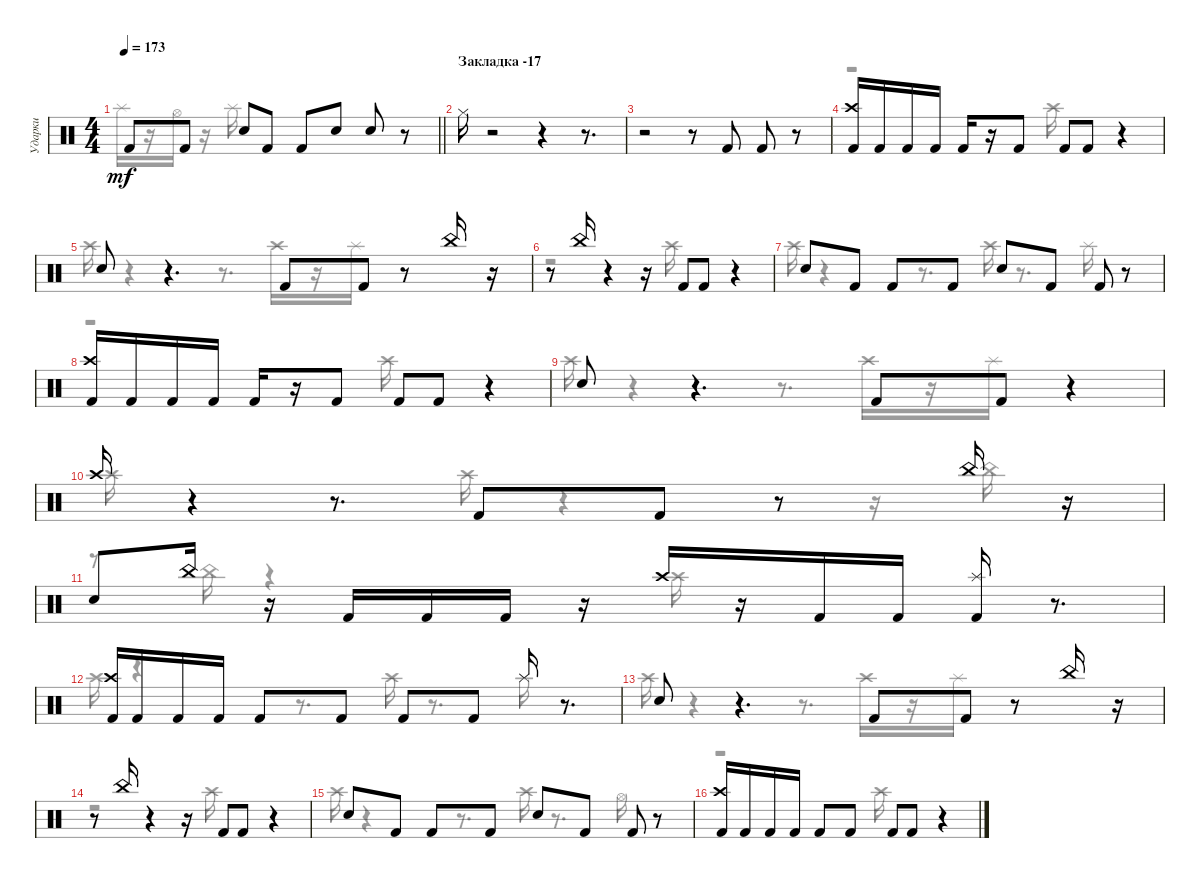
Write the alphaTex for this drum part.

\track ("Ударки" "Ударки") {instrument percussion}
\staff {score}
\articulation defaults
\voice
\ts (4 4)
\tempo 173
\clef neutral
\barLineRight lightlight
\ks aminor "Kick (hit) 2".8{dy mf} "Kick (hit) 2".8 "Snare (hit) 2".8 "Kick (hit) 2".8 "Kick (hit) 2".8 "Snare (hit) 2".8 "Snare (hit) 2".8
r.8 |
\section ("" "Закладка -17")
"Hi-Hat (closed)".16 r.2 r.4 r.8{d} |
r.2 r.8 "Kick (hit) 2".8 "Kick (hit) 2".8 r.8 |
("Crash high (hit)" "Kick (hit) 2").16 "Kick (hit) 2".16 "Kick (hit) 2".16 "Kick (hit) 2".16 "Kick (hit) 2".16 r.16 "Kick (hit) 2".8 "Kick (hit) 2".8 "Kick (hit) 2".8 r.4 |
"Snare (hit) 2".8 r.4{d} "Kick (hit) 2".8 "Kick (hit) 2".8 r.8 "China (hit)".16 r.16 |
r.8 "China (hit)".16 r.4 r.16 "Kick (hit) 2".8 "Kick (hit) 2".8 r.4 |
"Snare (hit) 2".8 "Kick (hit) 2".8 "Kick (hit) 2".8 "Kick (hit) 2".8 "Snare (hit) 2".8 "Kick (hit) 2".8 "Kick (hit) 2".8 r.8 |
("Kick (hit) 2" "Crash high (hit)").16 "Kick (hit) 2".16 "Kick (hit) 2".16 "Kick (hit) 2".16 "Kick (hit) 2".16 r.16 "Kick (hit) 2".8 "Kick (hit) 2".8 "Kick (hit) 2".8 r.4 |
"Snare (hit) 2".8 r.4{d} "Kick (hit) 2".8 "Kick (hit) 2".8 r.4 |
"Crash high (hit)".16 r.4 r.8{d} "Kick (hit) 2".8 "Kick (hit) 2".8 r.8 "China (hit)".16 r.16 |
"Snare (hit) 2".8 "China (hit)".16 r.16 "Kick (hit) 2".16 "Kick (hit) 2".16 "Kick (hit) 2".16 r.16 "Crash high (hit)".16 r.16 "Kick (hit) 2".16 "Kick (hit) 2".16 ("Kick (hit) 2" "Splash (hit)").16 r.8{d} |
("Kick (hit) 2" "Crash high (hit)").16 "Kick (hit) 2".16 "Kick (hit) 2".16 "Kick (hit) 2".16 "Kick (hit) 2".8 "Kick (hit) 2".8 "Kick (hit) 2".8 "Kick (hit) 2".8 "Splash (hit)".16 r.8{d} |
"Snare (hit) 2".8 r.4{d} "Kick (hit) 2".8 "Kick (hit) 2".8 r.8 "China (hit)".16 r.16 |
r.8 "China (hit)".16 r.4 r.16 "Kick (hit) 2".8 "Kick (hit) 2".8 r.4 |
"Snare (hit) 2".8 "Kick (hit) 2".8 "Kick (hit) 2".8 "Kick (hit) 2".8 "Snare (hit) 2".8 "Kick (hit) 2".8 "Kick (hit) 2".8 r.8 |
("Crash high (hit)" "Kick (hit) 2").16 "Kick (hit) 2".16 "Kick (hit) 2".16 "Kick (hit) 2".16 "Kick (hit) 2".8 "Kick (hit) 2".8 "Kick (hit) 2".8 "Kick (hit) 2".8 r.4
\voice
\clef neutral
\ottava regular
\simile none
\barLineRight lightlight
\ks aminor "Splash (hit)".16{dy mf}
r.16 "Hi-Hat (open)".16 r.16 "Splash (hit)".16 |
|
|
r.2 "Crash high (hit)".16 |
"Crash high (hit)".16 r.4 r.8{d} "Crash high (hit)".16 r.16 "Splash (hit)".16 |
r.2 "Crash high (hit)".16 |
"Crash high (hit)".16 r.4 r.8{d} "Crash high (hit)".16 r.8{d} "Splash (hit)".16 |
r.2 "Crash high (hit)".16 |
"Crash high (hit)".16 r.4 r.8{d} "Crash high (hit)".16 r.16 "Splash (hit)".16 |
"Crash high (hit)".16 r.4 r.8{d} "Crash high (hit)".16 r.4 r.16 "China (hit)".16 |
r.8 "China (hit)".16 r.4 r.16 "Crash high (hit)".16 |
"Crash high (hit)".16 r.4 r.8{d} "Crash high (hit)".16 r.8{d} "Splash (hit)".16 |
"Crash high (hit)".16 r.4 r.8{d} "Crash high (hit)".16 r.16 "Splash (hit)".16 |
r.2 "Crash high (hit)".16 |
"Crash high (hit)".16 r.4 r.8{d} "Crash high (hit)".16 r.8{d} "Hi-Hat (open)".16 |
r.2 "Crash high (hit)".16
